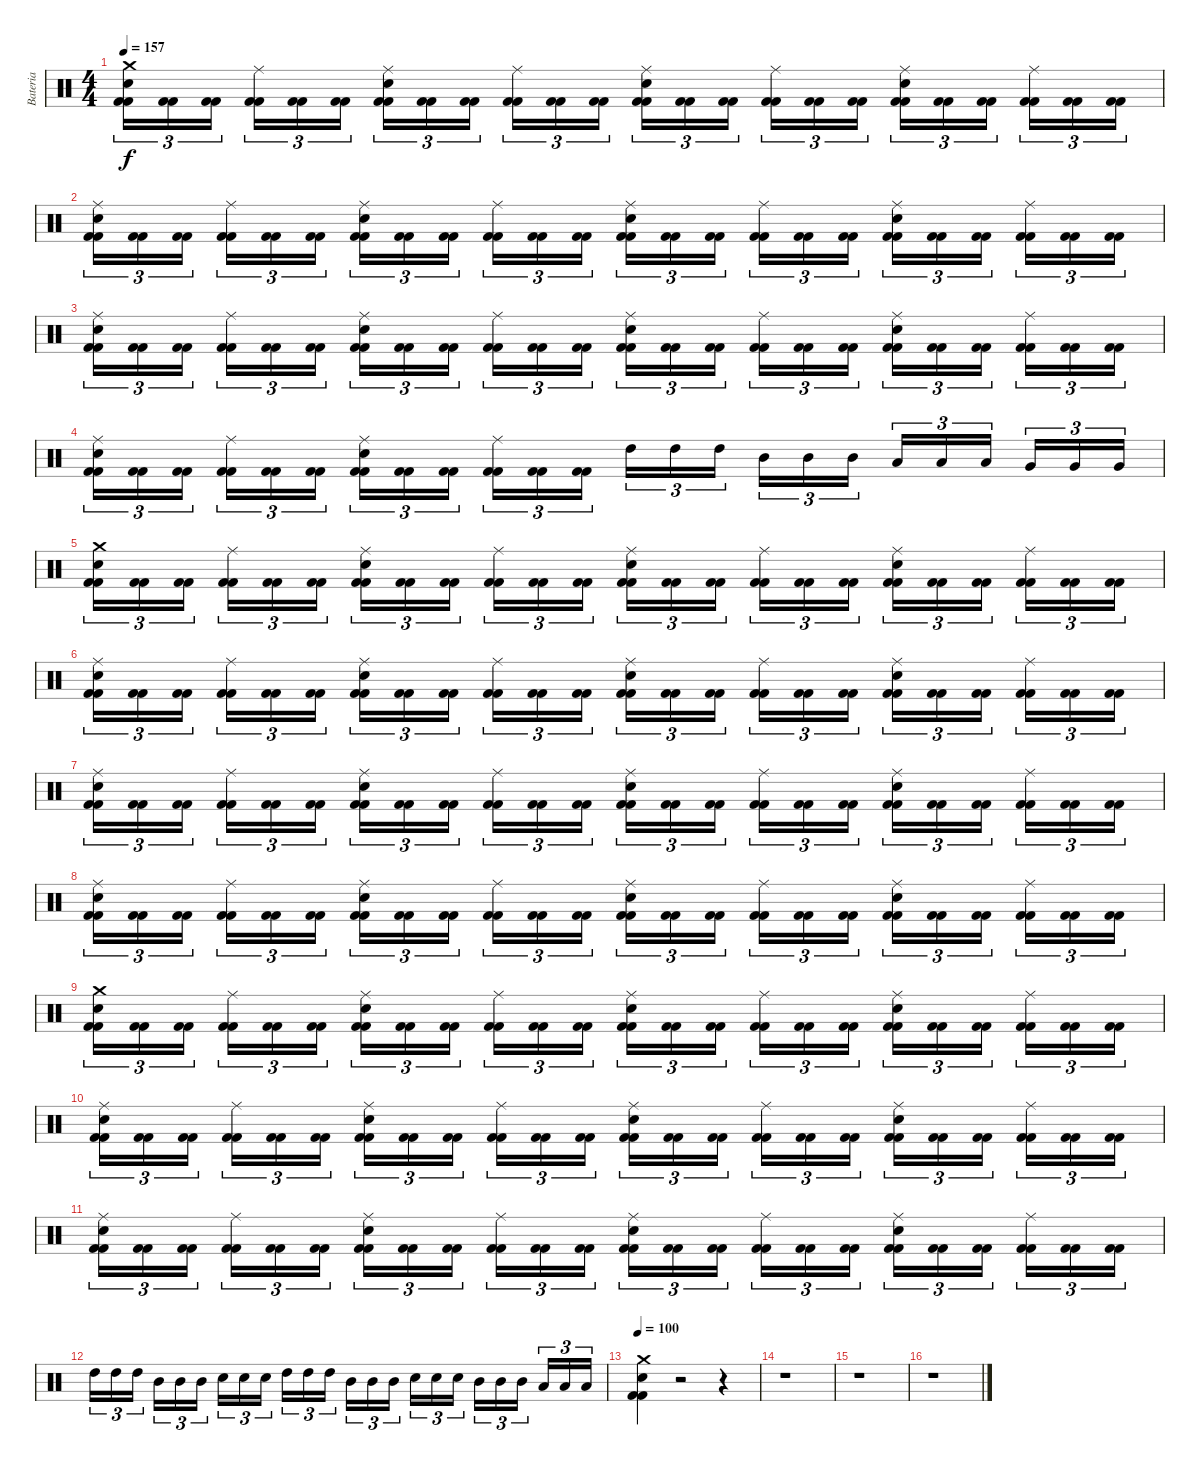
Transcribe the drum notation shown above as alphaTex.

\track ("Bateria" "Bateria") {instrument percussion}
\staff {score}
\articulation defaults
\ts (4 4)
\tempo 157
\clef neutral
\ks c
("Kick (hit) 2" "Kick (hit) 2" "Snare (hit) 2" "Crash medium (hit)").16{tu (3 2) dy f} ("Kick (hit) 2" "Kick (hit) 2").16{tu (3 2)} ("Kick (hit) 2" "Kick (hit) 2").16{tu (3 2)} ("Kick (hit) 2" "Kick (hit) 2" "Ride (middle)").16{tu (3 2)} ("Kick (hit) 2" "Kick (hit) 2").16{tu (3 2)} ("Kick (hit) 2" "Kick (hit) 2").16{tu (3 2)} ("Kick (hit) 2" "Kick (hit) 2" "Snare (hit) 2" "Ride (middle)").16{tu (3 2)} ("Kick (hit) 2" "Kick (hit) 2").16{tu (3 2)} ("Kick (hit) 2" "Kick (hit) 2").16{tu (3 2)} ("Kick (hit) 2" "Kick (hit) 2" "Ride (middle)").16{tu (3 2)} ("Kick (hit) 2" "Kick (hit) 2").16{tu (3 2)} ("Kick (hit) 2" "Kick (hit) 2").16{tu (3 2)} ("Kick (hit) 2" "Kick (hit) 2" "Snare (hit) 2" "Ride (middle)").16{tu (3 2)} ("Kick (hit) 2" "Kick (hit) 2").16{tu (3 2)} ("Kick (hit) 2" "Kick (hit) 2").16{tu (3 2)} ("Kick (hit) 2" "Kick (hit) 2" "Ride (middle)").16{tu (3 2)} ("Kick (hit) 2" "Kick (hit) 2").16{tu (3 2)} ("Kick (hit) 2" "Kick (hit) 2").16{tu (3 2)} ("Kick (hit) 2" "Kick (hit) 2" "Snare (hit) 2" "Ride (middle)").16{tu (3 2)} ("Kick (hit) 2" "Kick (hit) 2").16{tu (3 2)} ("Kick (hit) 2" "Kick (hit) 2").16{tu (3 2)} ("Kick (hit) 2" "Kick (hit) 2" "Ride (middle)").16{tu (3 2)} ("Kick (hit) 2" "Kick (hit) 2").16{tu (3 2)} ("Kick (hit) 2" "Kick (hit) 2").16{tu (3 2)} |
("Kick (hit) 2" "Kick (hit) 2" "Snare (hit) 2" "Ride (middle)").16{tu (3 2)} ("Kick (hit) 2" "Kick (hit) 2").16{tu (3 2)} ("Kick (hit) 2" "Kick (hit) 2").16{tu (3 2)} ("Kick (hit) 2" "Kick (hit) 2" "Ride (middle)").16{tu (3 2)} ("Kick (hit) 2" "Kick (hit) 2").16{tu (3 2)} ("Kick (hit) 2" "Kick (hit) 2").16{tu (3 2)} ("Kick (hit) 2" "Kick (hit) 2" "Snare (hit) 2" "Ride (middle)").16{tu (3 2)} ("Kick (hit) 2" "Kick (hit) 2").16{tu (3 2)} ("Kick (hit) 2" "Kick (hit) 2").16{tu (3 2)} ("Kick (hit) 2" "Kick (hit) 2" "Ride (middle)").16{tu (3 2)} ("Kick (hit) 2" "Kick (hit) 2").16{tu (3 2)} ("Kick (hit) 2" "Kick (hit) 2").16{tu (3 2)} ("Kick (hit) 2" "Kick (hit) 2" "Snare (hit) 2" "Ride (middle)").16{tu (3 2)} ("Kick (hit) 2" "Kick (hit) 2").16{tu (3 2)} ("Kick (hit) 2" "Kick (hit) 2").16{tu (3 2)} ("Kick (hit) 2" "Kick (hit) 2" "Ride (middle)").16{tu (3 2)} ("Kick (hit) 2" "Kick (hit) 2").16{tu (3 2)} ("Kick (hit) 2" "Kick (hit) 2").16{tu (3 2)} ("Kick (hit) 2" "Kick (hit) 2" "Snare (hit) 2" "Ride (middle)").16{tu (3 2)} ("Kick (hit) 2" "Kick (hit) 2").16{tu (3 2)} ("Kick (hit) 2" "Kick (hit) 2").16{tu (3 2)} ("Kick (hit) 2" "Kick (hit) 2" "Ride (middle)").16{tu (3 2)} ("Kick (hit) 2" "Kick (hit) 2").16{tu (3 2)} ("Kick (hit) 2" "Kick (hit) 2").16{tu (3 2)} |
("Kick (hit) 2" "Kick (hit) 2" "Snare (hit) 2" "Ride (middle)").16{tu (3 2)} ("Kick (hit) 2" "Kick (hit) 2").16{tu (3 2)} ("Kick (hit) 2" "Kick (hit) 2").16{tu (3 2)} ("Kick (hit) 2" "Kick (hit) 2" "Ride (middle)").16{tu (3 2)} ("Kick (hit) 2" "Kick (hit) 2").16{tu (3 2)} ("Kick (hit) 2" "Kick (hit) 2").16{tu (3 2)} ("Kick (hit) 2" "Kick (hit) 2" "Snare (hit) 2" "Ride (middle)").16{tu (3 2)} ("Kick (hit) 2" "Kick (hit) 2").16{tu (3 2)} ("Kick (hit) 2" "Kick (hit) 2").16{tu (3 2)} ("Kick (hit) 2" "Kick (hit) 2" "Ride (middle)").16{tu (3 2)} ("Kick (hit) 2" "Kick (hit) 2").16{tu (3 2)} ("Kick (hit) 2" "Kick (hit) 2").16{tu (3 2)} ("Kick (hit) 2" "Kick (hit) 2" "Snare (hit) 2" "Ride (middle)").16{tu (3 2)} ("Kick (hit) 2" "Kick (hit) 2").16{tu (3 2)} ("Kick (hit) 2" "Kick (hit) 2").16{tu (3 2)} ("Kick (hit) 2" "Kick (hit) 2" "Ride (middle)").16{tu (3 2)} ("Kick (hit) 2" "Kick (hit) 2").16{tu (3 2)} ("Kick (hit) 2" "Kick (hit) 2").16{tu (3 2)} ("Kick (hit) 2" "Kick (hit) 2" "Snare (hit) 2" "Ride (middle)").16{tu (3 2)} ("Kick (hit) 2" "Kick (hit) 2").16{tu (3 2)} ("Kick (hit) 2" "Kick (hit) 2").16{tu (3 2)} ("Kick (hit) 2" "Kick (hit) 2" "Ride (middle)").16{tu (3 2)} ("Kick (hit) 2" "Kick (hit) 2").16{tu (3 2)} ("Kick (hit) 2" "Kick (hit) 2").16{tu (3 2)} |
("Kick (hit) 2" "Kick (hit) 2" "Snare (hit) 2" "Ride (middle)").16{tu (3 2)} ("Kick (hit) 2" "Kick (hit) 2").16{tu (3 2)} ("Kick (hit) 2" "Kick (hit) 2").16{tu (3 2)} ("Kick (hit) 2" "Kick (hit) 2" "Ride (middle)").16{tu (3 2)} ("Kick (hit) 2" "Kick (hit) 2").16{tu (3 2)} ("Kick (hit) 2" "Kick (hit) 2").16{tu (3 2)} ("Kick (hit) 2" "Kick (hit) 2" "Snare (hit) 2" "Ride (middle)").16{tu (3 2)} ("Kick (hit) 2" "Kick (hit) 2").16{tu (3 2)} ("Kick (hit) 2" "Kick (hit) 2").16{tu (3 2)} ("Kick (hit) 2" "Kick (hit) 2" "Ride (middle)").16{tu (3 2)} ("Kick (hit) 2" "Kick (hit) 2").16{tu (3 2)} ("Kick (hit) 2" "Kick (hit) 2").16{tu (3 2)} "High Tom (hit)".16{tu (3 2)} "High Tom (hit)".16{tu (3 2)} "High Tom (hit)".16{tu (3 2)} "Mid Tom (hit)".16{tu (3 2)} "Mid Tom (hit)".16{tu (3 2)} "Mid Tom (hit)".16{tu (3 2)} "Low Tom (hit)".16{tu (3 2)} "Low Tom (hit)".16{tu (3 2)} "Low Tom (hit)".16{tu (3 2)} "Very Low Tom (hit)".16{tu (3 2)} "Very Low Tom (hit)".16{tu (3 2)} "Very Low Tom (hit)".16{tu (3 2)} |
("Kick (hit) 2" "Kick (hit) 2" "Snare (hit) 2" "Crash medium (hit)").16{tu (3 2)} ("Kick (hit) 2" "Kick (hit) 2").16{tu (3 2)} ("Kick (hit) 2" "Kick (hit) 2").16{tu (3 2)} ("Kick (hit) 2" "Kick (hit) 2" "Ride (middle)").16{tu (3 2)} ("Kick (hit) 2" "Kick (hit) 2").16{tu (3 2)} ("Kick (hit) 2" "Kick (hit) 2").16{tu (3 2)} ("Kick (hit) 2" "Kick (hit) 2" "Snare (hit) 2" "Ride (middle)").16{tu (3 2)} ("Kick (hit) 2" "Kick (hit) 2").16{tu (3 2)} ("Kick (hit) 2" "Kick (hit) 2").16{tu (3 2)} ("Kick (hit) 2" "Kick (hit) 2" "Ride (middle)").16{tu (3 2)} ("Kick (hit) 2" "Kick (hit) 2").16{tu (3 2)} ("Kick (hit) 2" "Kick (hit) 2").16{tu (3 2)} ("Kick (hit) 2" "Kick (hit) 2" "Snare (hit) 2" "Ride (middle)").16{tu (3 2)} ("Kick (hit) 2" "Kick (hit) 2").16{tu (3 2)} ("Kick (hit) 2" "Kick (hit) 2").16{tu (3 2)} ("Kick (hit) 2" "Kick (hit) 2" "Ride (middle)").16{tu (3 2)} ("Kick (hit) 2" "Kick (hit) 2").16{tu (3 2)} ("Kick (hit) 2" "Kick (hit) 2").16{tu (3 2)} ("Kick (hit) 2" "Kick (hit) 2" "Snare (hit) 2" "Ride (middle)").16{tu (3 2)} ("Kick (hit) 2" "Kick (hit) 2").16{tu (3 2)} ("Kick (hit) 2" "Kick (hit) 2").16{tu (3 2)} ("Kick (hit) 2" "Kick (hit) 2" "Ride (middle)").16{tu (3 2)} ("Kick (hit) 2" "Kick (hit) 2").16{tu (3 2)} ("Kick (hit) 2" "Kick (hit) 2").16{tu (3 2)} |
("Kick (hit) 2" "Kick (hit) 2" "Snare (hit) 2" "Ride (middle)").16{tu (3 2)} ("Kick (hit) 2" "Kick (hit) 2").16{tu (3 2)} ("Kick (hit) 2" "Kick (hit) 2").16{tu (3 2)} ("Kick (hit) 2" "Kick (hit) 2" "Ride (middle)").16{tu (3 2)} ("Kick (hit) 2" "Kick (hit) 2").16{tu (3 2)} ("Kick (hit) 2" "Kick (hit) 2").16{tu (3 2)} ("Kick (hit) 2" "Kick (hit) 2" "Snare (hit) 2" "Ride (middle)").16{tu (3 2)} ("Kick (hit) 2" "Kick (hit) 2").16{tu (3 2)} ("Kick (hit) 2" "Kick (hit) 2").16{tu (3 2)} ("Kick (hit) 2" "Kick (hit) 2" "Ride (middle)").16{tu (3 2)} ("Kick (hit) 2" "Kick (hit) 2").16{tu (3 2)} ("Kick (hit) 2" "Kick (hit) 2").16{tu (3 2)} ("Kick (hit) 2" "Kick (hit) 2" "Snare (hit) 2" "Ride (middle)").16{tu (3 2)} ("Kick (hit) 2" "Kick (hit) 2").16{tu (3 2)} ("Kick (hit) 2" "Kick (hit) 2").16{tu (3 2)} ("Kick (hit) 2" "Kick (hit) 2" "Ride (middle)").16{tu (3 2)} ("Kick (hit) 2" "Kick (hit) 2").16{tu (3 2)} ("Kick (hit) 2" "Kick (hit) 2").16{tu (3 2)} ("Kick (hit) 2" "Kick (hit) 2" "Snare (hit) 2" "Ride (middle)").16{tu (3 2)} ("Kick (hit) 2" "Kick (hit) 2").16{tu (3 2)} ("Kick (hit) 2" "Kick (hit) 2").16{tu (3 2)} ("Kick (hit) 2" "Kick (hit) 2" "Ride (middle)").16{tu (3 2)} ("Kick (hit) 2" "Kick (hit) 2").16{tu (3 2)} ("Kick (hit) 2" "Kick (hit) 2").16{tu (3 2)} |
("Kick (hit) 2" "Kick (hit) 2" "Snare (hit) 2" "Ride (middle)").16{tu (3 2)} ("Kick (hit) 2" "Kick (hit) 2").16{tu (3 2)} ("Kick (hit) 2" "Kick (hit) 2").16{tu (3 2)} ("Kick (hit) 2" "Kick (hit) 2" "Ride (middle)").16{tu (3 2)} ("Kick (hit) 2" "Kick (hit) 2").16{tu (3 2)} ("Kick (hit) 2" "Kick (hit) 2").16{tu (3 2)} ("Kick (hit) 2" "Kick (hit) 2" "Snare (hit) 2" "Ride (middle)").16{tu (3 2)} ("Kick (hit) 2" "Kick (hit) 2").16{tu (3 2)} ("Kick (hit) 2" "Kick (hit) 2").16{tu (3 2)} ("Kick (hit) 2" "Kick (hit) 2" "Ride (middle)").16{tu (3 2)} ("Kick (hit) 2" "Kick (hit) 2").16{tu (3 2)} ("Kick (hit) 2" "Kick (hit) 2").16{tu (3 2)} ("Kick (hit) 2" "Kick (hit) 2" "Snare (hit) 2" "Ride (middle)").16{tu (3 2)} ("Kick (hit) 2" "Kick (hit) 2").16{tu (3 2)} ("Kick (hit) 2" "Kick (hit) 2").16{tu (3 2)} ("Kick (hit) 2" "Kick (hit) 2" "Ride (middle)").16{tu (3 2)} ("Kick (hit) 2" "Kick (hit) 2").16{tu (3 2)} ("Kick (hit) 2" "Kick (hit) 2").16{tu (3 2)} ("Kick (hit) 2" "Kick (hit) 2" "Snare (hit) 2" "Ride (middle)").16{tu (3 2)} ("Kick (hit) 2" "Kick (hit) 2").16{tu (3 2)} ("Kick (hit) 2" "Kick (hit) 2").16{tu (3 2)} ("Kick (hit) 2" "Kick (hit) 2" "Ride (middle)").16{tu (3 2)} ("Kick (hit) 2" "Kick (hit) 2").16{tu (3 2)} ("Kick (hit) 2" "Kick (hit) 2").16{tu (3 2)} |
("Kick (hit) 2" "Kick (hit) 2" "Snare (hit) 2" "Ride (middle)").16{tu (3 2)} ("Kick (hit) 2" "Kick (hit) 2").16{tu (3 2)} ("Kick (hit) 2" "Kick (hit) 2").16{tu (3 2)} ("Kick (hit) 2" "Kick (hit) 2" "Ride (middle)").16{tu (3 2)} ("Kick (hit) 2" "Kick (hit) 2").16{tu (3 2)} ("Kick (hit) 2" "Kick (hit) 2").16{tu (3 2)} ("Kick (hit) 2" "Kick (hit) 2" "Snare (hit) 2" "Ride (middle)").16{tu (3 2)} ("Kick (hit) 2" "Kick (hit) 2").16{tu (3 2)} ("Kick (hit) 2" "Kick (hit) 2").16{tu (3 2)} ("Kick (hit) 2" "Kick (hit) 2" "Ride (middle)").16{tu (3 2)} ("Kick (hit) 2" "Kick (hit) 2").16{tu (3 2)} ("Kick (hit) 2" "Kick (hit) 2").16{tu (3 2)} ("Kick (hit) 2" "Kick (hit) 2" "Snare (hit) 2" "Ride (middle)").16{tu (3 2)} ("Kick (hit) 2" "Kick (hit) 2").16{tu (3 2)} ("Kick (hit) 2" "Kick (hit) 2").16{tu (3 2)} ("Kick (hit) 2" "Kick (hit) 2" "Ride (middle)").16{tu (3 2)} ("Kick (hit) 2" "Kick (hit) 2").16{tu (3 2)} ("Kick (hit) 2" "Kick (hit) 2").16{tu (3 2)} ("Kick (hit) 2" "Kick (hit) 2" "Snare (hit) 2" "Ride (middle)").16{tu (3 2)} ("Kick (hit) 2" "Kick (hit) 2").16{tu (3 2)} ("Kick (hit) 2" "Kick (hit) 2").16{tu (3 2)} ("Kick (hit) 2" "Kick (hit) 2" "Ride (middle)").16{tu (3 2)} ("Kick (hit) 2" "Kick (hit) 2").16{tu (3 2)} ("Kick (hit) 2" "Kick (hit) 2").16{tu (3 2)} |
("Kick (hit) 2" "Kick (hit) 2" "Snare (hit) 2" "Crash medium (hit)").16{tu (3 2)} ("Kick (hit) 2" "Kick (hit) 2").16{tu (3 2)} ("Kick (hit) 2" "Kick (hit) 2").16{tu (3 2)} ("Kick (hit) 2" "Kick (hit) 2" "Ride (middle)").16{tu (3 2)} ("Kick (hit) 2" "Kick (hit) 2").16{tu (3 2)} ("Kick (hit) 2" "Kick (hit) 2").16{tu (3 2)} ("Kick (hit) 2" "Kick (hit) 2" "Snare (hit) 2" "Ride (middle)").16{tu (3 2)} ("Kick (hit) 2" "Kick (hit) 2").16{tu (3 2)} ("Kick (hit) 2" "Kick (hit) 2").16{tu (3 2)} ("Kick (hit) 2" "Kick (hit) 2" "Ride (middle)").16{tu (3 2)} ("Kick (hit) 2" "Kick (hit) 2").16{tu (3 2)} ("Kick (hit) 2" "Kick (hit) 2").16{tu (3 2)} ("Kick (hit) 2" "Kick (hit) 2" "Snare (hit) 2" "Ride (middle)").16{tu (3 2)} ("Kick (hit) 2" "Kick (hit) 2").16{tu (3 2)} ("Kick (hit) 2" "Kick (hit) 2").16{tu (3 2)} ("Kick (hit) 2" "Kick (hit) 2" "Ride (middle)").16{tu (3 2)} ("Kick (hit) 2" "Kick (hit) 2").16{tu (3 2)} ("Kick (hit) 2" "Kick (hit) 2").16{tu (3 2)} ("Kick (hit) 2" "Kick (hit) 2" "Snare (hit) 2" "Ride (middle)").16{tu (3 2)} ("Kick (hit) 2" "Kick (hit) 2").16{tu (3 2)} ("Kick (hit) 2" "Kick (hit) 2").16{tu (3 2)} ("Kick (hit) 2" "Kick (hit) 2" "Ride (middle)").16{tu (3 2)} ("Kick (hit) 2" "Kick (hit) 2").16{tu (3 2)} ("Kick (hit) 2" "Kick (hit) 2").16{tu (3 2)} |
("Kick (hit) 2" "Kick (hit) 2" "Snare (hit) 2" "Ride (middle)").16{tu (3 2)} ("Kick (hit) 2" "Kick (hit) 2").16{tu (3 2)} ("Kick (hit) 2" "Kick (hit) 2").16{tu (3 2)} ("Kick (hit) 2" "Kick (hit) 2" "Ride (middle)").16{tu (3 2)} ("Kick (hit) 2" "Kick (hit) 2").16{tu (3 2)} ("Kick (hit) 2" "Kick (hit) 2").16{tu (3 2)} ("Kick (hit) 2" "Kick (hit) 2" "Snare (hit) 2" "Ride (middle)").16{tu (3 2)} ("Kick (hit) 2" "Kick (hit) 2").16{tu (3 2)} ("Kick (hit) 2" "Kick (hit) 2").16{tu (3 2)} ("Kick (hit) 2" "Kick (hit) 2" "Ride (middle)").16{tu (3 2)} ("Kick (hit) 2" "Kick (hit) 2").16{tu (3 2)} ("Kick (hit) 2" "Kick (hit) 2").16{tu (3 2)} ("Kick (hit) 2" "Kick (hit) 2" "Snare (hit) 2" "Ride (middle)").16{tu (3 2)} ("Kick (hit) 2" "Kick (hit) 2").16{tu (3 2)} ("Kick (hit) 2" "Kick (hit) 2").16{tu (3 2)} ("Kick (hit) 2" "Kick (hit) 2" "Ride (middle)").16{tu (3 2)} ("Kick (hit) 2" "Kick (hit) 2").16{tu (3 2)} ("Kick (hit) 2" "Kick (hit) 2").16{tu (3 2)} ("Kick (hit) 2" "Kick (hit) 2" "Snare (hit) 2" "Ride (middle)").16{tu (3 2)} ("Kick (hit) 2" "Kick (hit) 2").16{tu (3 2)} ("Kick (hit) 2" "Kick (hit) 2").16{tu (3 2)} ("Kick (hit) 2" "Kick (hit) 2" "Ride (middle)").16{tu (3 2)} ("Kick (hit) 2" "Kick (hit) 2").16{tu (3 2)} ("Kick (hit) 2" "Kick (hit) 2").16{tu (3 2)} |
("Kick (hit) 2" "Kick (hit) 2" "Snare (hit) 2" "Ride (middle)").16{tu (3 2)} ("Kick (hit) 2" "Kick (hit) 2").16{tu (3 2)} ("Kick (hit) 2" "Kick (hit) 2").16{tu (3 2)} ("Kick (hit) 2" "Kick (hit) 2" "Ride (middle)").16{tu (3 2)} ("Kick (hit) 2" "Kick (hit) 2").16{tu (3 2)} ("Kick (hit) 2" "Kick (hit) 2").16{tu (3 2)} ("Kick (hit) 2" "Kick (hit) 2" "Snare (hit) 2" "Ride (middle)").16{tu (3 2)} ("Kick (hit) 2" "Kick (hit) 2").16{tu (3 2)} ("Kick (hit) 2" "Kick (hit) 2").16{tu (3 2)} ("Kick (hit) 2" "Kick (hit) 2" "Ride (middle)").16{tu (3 2)} ("Kick (hit) 2" "Kick (hit) 2").16{tu (3 2)} ("Kick (hit) 2" "Kick (hit) 2").16{tu (3 2)} ("Kick (hit) 2" "Kick (hit) 2" "Snare (hit) 2" "Ride (middle)").16{tu (3 2)} ("Kick (hit) 2" "Kick (hit) 2").16{tu (3 2)} ("Kick (hit) 2" "Kick (hit) 2").16{tu (3 2)} ("Kick (hit) 2" "Kick (hit) 2" "Ride (middle)").16{tu (3 2)} ("Kick (hit) 2" "Kick (hit) 2").16{tu (3 2)} ("Kick (hit) 2" "Kick (hit) 2").16{tu (3 2)} ("Kick (hit) 2" "Kick (hit) 2" "Snare (hit) 2" "Ride (middle)").16{tu (3 2)} ("Kick (hit) 2" "Kick (hit) 2").16{tu (3 2)} ("Kick (hit) 2" "Kick (hit) 2").16{tu (3 2)} ("Kick (hit) 2" "Kick (hit) 2" "Ride (middle)").16{tu (3 2)} ("Kick (hit) 2" "Kick (hit) 2").16{tu (3 2)} ("Kick (hit) 2" "Kick (hit) 2").16{tu (3 2)} |
"High Tom (hit)".16{tu (3 2)} "High Tom (hit)".16{tu (3 2)} "High Tom (hit)".16{tu (3 2)} "Mid Tom (hit)".16{tu (3 2)} "Mid Tom (hit)".16{tu (3 2)} "Mid Tom (hit)".16{tu (3 2)} "Snare (hit) 2".16{tu (3 2)} "Snare (hit) 2".16{tu (3 2)} "Snare (hit) 2".16{tu (3 2)} "High Tom (hit)".16{tu (3 2)} "High Tom (hit)".16{tu (3 2)} "High Tom (hit)".16{tu (3 2)} "Mid Tom (hit)".16{tu (3 2)} "Mid Tom (hit)".16{tu (3 2)} "Mid Tom (hit)".16{tu (3 2)} "Snare (hit) 2".16{tu (3 2)} "Snare (hit) 2".16{tu (3 2)} "Snare (hit) 2".16{tu (3 2)} "Mid Tom (hit)".16{tu (3 2)} "Mid Tom (hit)".16{tu (3 2)} "Mid Tom (hit)".16{tu (3 2)} "Low Tom (hit)".16{tu (3 2)} "Low Tom (hit)".16{tu (3 2)} "Low Tom (hit)".16{tu (3 2)} |
\tempo 100
("Kick (hit) 2" "Kick (hit) 2" "Snare (hit) 2" "Crash medium (hit)").4 r.2 r.4 |
r.1 |
r.1 |
r.1
